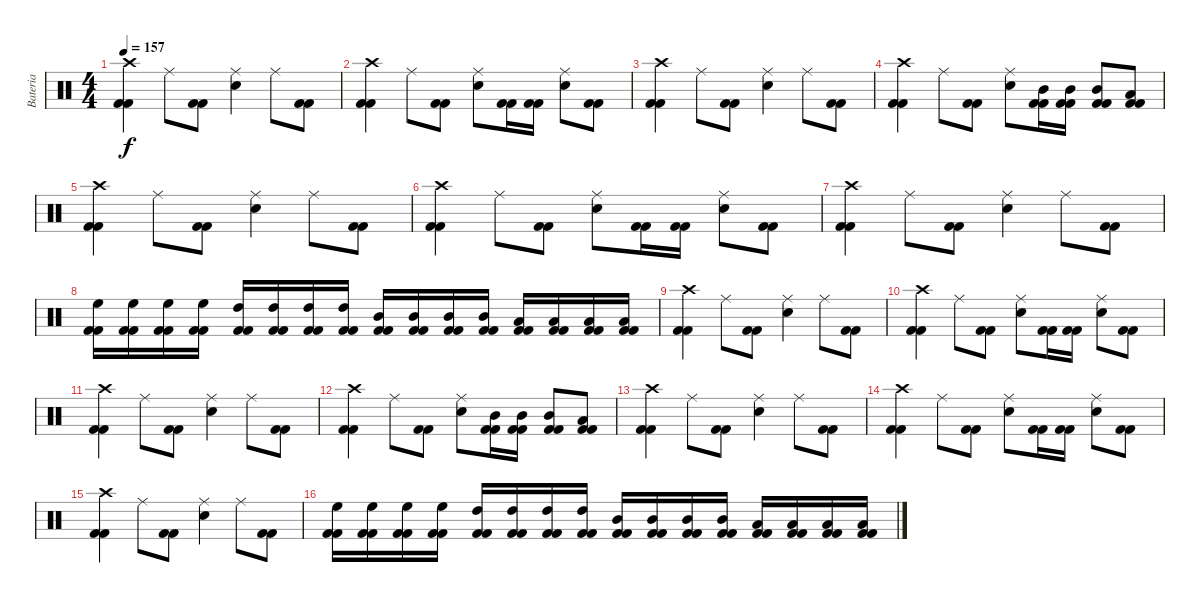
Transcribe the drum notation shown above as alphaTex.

\track ("Bateria" "Bateria") {instrument percussion}
\staff {score}
\articulation defaults
\ts (4 4)
\tempo 157
\clef neutral
\ks c
("Kick (hit) 2" "Kick (hit) 2" "Crash high (hit)").4{dy f} "Ride (middle)".8 ("Kick (hit) 2" "Kick (hit) 2").8 ("Snare (hit) 2" "Ride (middle)").4 "Ride (middle)".8 ("Kick (hit) 2" "Kick (hit) 2").8 |
("Kick (hit) 2" "Kick (hit) 2" "Crash high (hit)").4 "Ride (middle)".8 ("Kick (hit) 2" "Kick (hit) 2").8 ("Snare (hit) 2" "Ride (middle)").8 ("Kick (hit) 2" "Kick (hit) 2").16 ("Kick (hit) 2" "Kick (hit) 2").16 ("Snare (hit) 2" "Ride (middle)").8 ("Kick (hit) 2" "Kick (hit) 2").8 |
("Kick (hit) 2" "Kick (hit) 2" "Crash high (hit)").4 "Ride (middle)".8 ("Kick (hit) 2" "Kick (hit) 2").8 ("Snare (hit) 2" "Ride (middle)").4 "Ride (middle)".8 ("Kick (hit) 2" "Kick (hit) 2").8 |
("Kick (hit) 2" "Kick (hit) 2" "Crash high (hit)").4 "Ride (middle)".8 ("Kick (hit) 2" "Kick (hit) 2").8 ("Snare (hit) 2" "Ride (middle)").8 ("Kick (hit) 2" "Kick (hit) 2" "Mid Tom (hit)").16 ("Kick (hit) 2" "Kick (hit) 2" "Mid Tom (hit)").16 ("Kick (hit) 2" "Kick (hit) 2" "Mid Tom (hit)").8 ("Kick (hit) 2" "Kick (hit) 2" "Low Tom (hit)").8 |
("Kick (hit) 2" "Kick (hit) 2" "Crash high (hit)").4 "Ride (middle)".8 ("Kick (hit) 2" "Kick (hit) 2").8 ("Snare (hit) 2" "Ride (middle)").4 "Ride (middle)".8 ("Kick (hit) 2" "Kick (hit) 2").8 |
("Kick (hit) 2" "Kick (hit) 2" "Crash high (hit)").4 "Ride (middle)".8 ("Kick (hit) 2" "Kick (hit) 2").8 ("Snare (hit) 2" "Ride (middle)").8 ("Kick (hit) 2" "Kick (hit) 2").16 ("Kick (hit) 2" "Kick (hit) 2").16 ("Snare (hit) 2" "Ride (middle)").8 ("Kick (hit) 2" "Kick (hit) 2").8 |
("Kick (hit) 2" "Kick (hit) 2" "Crash high (hit)").4 "Ride (middle)".8 ("Kick (hit) 2" "Kick (hit) 2").8 ("Snare (hit) 2" "Ride (middle)").4 "Ride (middle)".8 ("Kick (hit) 2" "Kick (hit) 2").8 |
("Kick (hit) 2" "Kick (hit) 2" "High Floor Tom (hit)").16 ("Kick (hit) 2" "Kick (hit) 2" "High Floor Tom (hit)").16 ("Kick (hit) 2" "Kick (hit) 2" "High Floor Tom (hit)").16 ("Kick (hit) 2" "Kick (hit) 2" "High Floor Tom (hit)").16 ("Kick (hit) 2" "Kick (hit) 2" "High Tom (hit)").16 ("Kick (hit) 2" "Kick (hit) 2" "High Tom (hit)").16 ("Kick (hit) 2" "Kick (hit) 2" "High Tom (hit)").16 ("Kick (hit) 2" "Kick (hit) 2" "High Tom (hit)").16 ("Kick (hit) 2" "Kick (hit) 2" "Mid Tom (hit)").16 ("Kick (hit) 2" "Kick (hit) 2" "Mid Tom (hit)").16 ("Kick (hit) 2" "Kick (hit) 2" "Mid Tom (hit)").16 ("Kick (hit) 2" "Kick (hit) 2" "Mid Tom (hit)").16 ("Kick (hit) 2" "Kick (hit) 2" "Low Tom (hit)").16 ("Kick (hit) 2" "Kick (hit) 2" "Low Tom (hit)").16 ("Kick (hit) 2" "Kick (hit) 2" "Low Tom (hit)").16 ("Kick (hit) 2" "Kick (hit) 2" "Low Tom (hit)").16 |
("Kick (hit) 2" "Kick (hit) 2" "Crash high (hit)").4 "Ride (middle)".8 ("Kick (hit) 2" "Kick (hit) 2").8 ("Snare (hit) 2" "Ride (middle)").4 "Ride (middle)".8 ("Kick (hit) 2" "Kick (hit) 2").8 |
("Kick (hit) 2" "Kick (hit) 2" "Crash high (hit)").4 "Ride (middle)".8 ("Kick (hit) 2" "Kick (hit) 2").8 ("Snare (hit) 2" "Ride (middle)").8 ("Kick (hit) 2" "Kick (hit) 2").16 ("Kick (hit) 2" "Kick (hit) 2").16 ("Snare (hit) 2" "Ride (middle)").8 ("Kick (hit) 2" "Kick (hit) 2").8 |
("Kick (hit) 2" "Kick (hit) 2" "Crash high (hit)").4 "Ride (middle)".8 ("Kick (hit) 2" "Kick (hit) 2").8 ("Snare (hit) 2" "Ride (middle)").4 "Ride (middle)".8 ("Kick (hit) 2" "Kick (hit) 2").8 |
("Kick (hit) 2" "Kick (hit) 2" "Crash high (hit)").4 "Ride (middle)".8 ("Kick (hit) 2" "Kick (hit) 2").8 ("Snare (hit) 2" "Ride (middle)").8 ("Kick (hit) 2" "Kick (hit) 2" "Mid Tom (hit)").16 ("Kick (hit) 2" "Kick (hit) 2" "Mid Tom (hit)").16 ("Kick (hit) 2" "Kick (hit) 2" "Mid Tom (hit)").8 ("Kick (hit) 2" "Kick (hit) 2" "Low Tom (hit)").8 |
("Kick (hit) 2" "Kick (hit) 2" "Crash high (hit)").4 "Ride (middle)".8 ("Kick (hit) 2" "Kick (hit) 2").8 ("Snare (hit) 2" "Ride (middle)").4 "Ride (middle)".8 ("Kick (hit) 2" "Kick (hit) 2").8 |
("Kick (hit) 2" "Kick (hit) 2" "Crash high (hit)").4 "Ride (middle)".8 ("Kick (hit) 2" "Kick (hit) 2").8 ("Snare (hit) 2" "Ride (middle)").8 ("Kick (hit) 2" "Kick (hit) 2").16 ("Kick (hit) 2" "Kick (hit) 2").16 ("Snare (hit) 2" "Ride (middle)").8 ("Kick (hit) 2" "Kick (hit) 2").8 |
("Kick (hit) 2" "Kick (hit) 2" "Crash high (hit)").4 "Ride (middle)".8 ("Kick (hit) 2" "Kick (hit) 2").8 ("Snare (hit) 2" "Ride (middle)").4 "Ride (middle)".8 ("Kick (hit) 2" "Kick (hit) 2").8 |
("Kick (hit) 2" "Kick (hit) 2" "High Floor Tom (hit)").16 ("Kick (hit) 2" "Kick (hit) 2" "High Floor Tom (hit)").16 ("Kick (hit) 2" "Kick (hit) 2" "High Floor Tom (hit)").16 ("Kick (hit) 2" "Kick (hit) 2" "High Floor Tom (hit)").16 ("Kick (hit) 2" "Kick (hit) 2" "High Tom (hit)").16 ("Kick (hit) 2" "Kick (hit) 2" "High Tom (hit)").16 ("Kick (hit) 2" "Kick (hit) 2" "High Tom (hit)").16 ("Kick (hit) 2" "Kick (hit) 2" "High Tom (hit)").16 ("Kick (hit) 2" "Kick (hit) 2" "Mid Tom (hit)").16 ("Kick (hit) 2" "Kick (hit) 2" "Mid Tom (hit)").16 ("Kick (hit) 2" "Kick (hit) 2" "Mid Tom (hit)").16 ("Kick (hit) 2" "Kick (hit) 2" "Mid Tom (hit)").16 ("Kick (hit) 2" "Kick (hit) 2" "Low Tom (hit)").16 ("Kick (hit) 2" "Kick (hit) 2" "Low Tom (hit)").16 ("Kick (hit) 2" "Kick (hit) 2" "Low Tom (hit)").16 ("Kick (hit) 2" "Kick (hit) 2" "Low Tom (hit)").16
